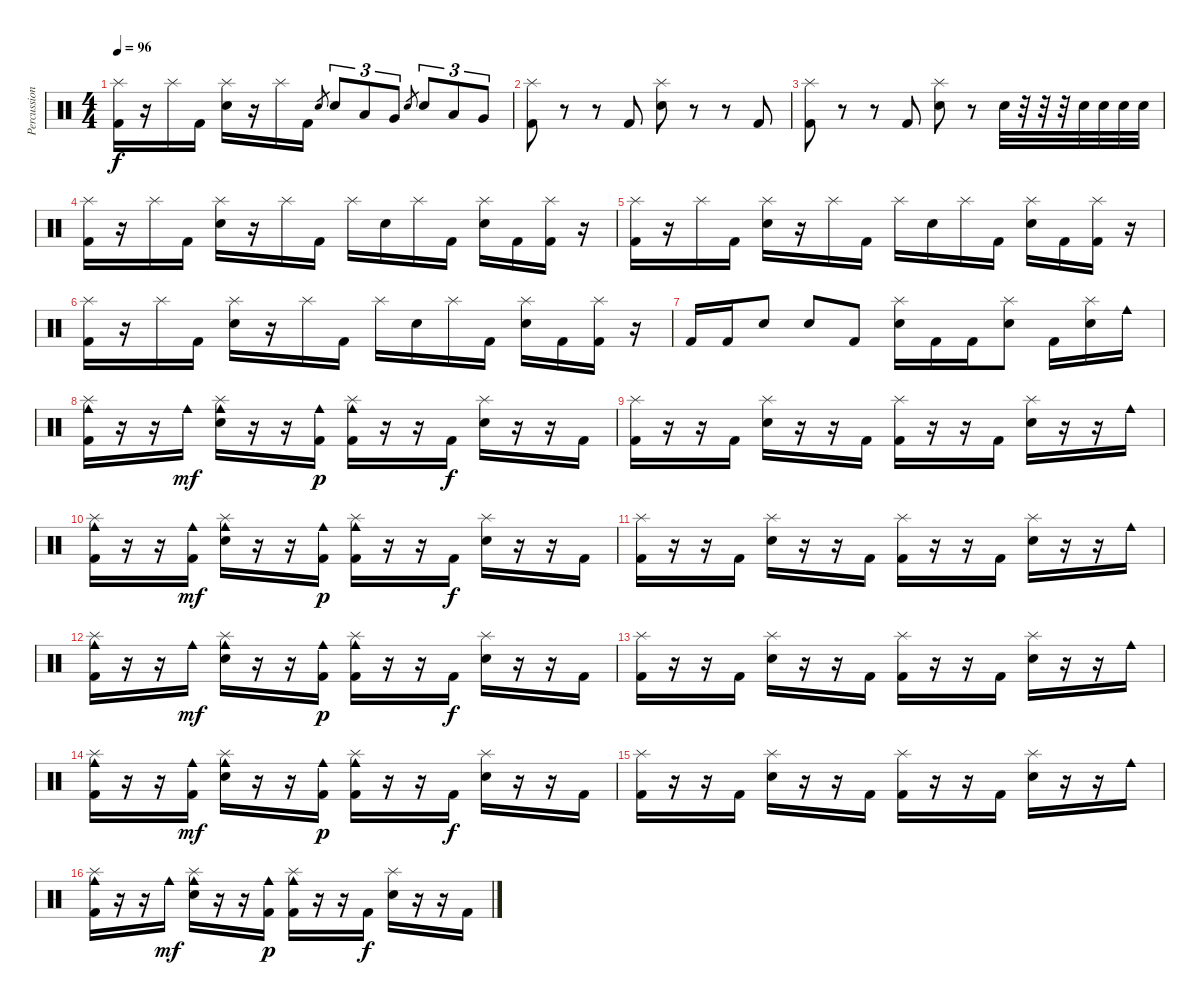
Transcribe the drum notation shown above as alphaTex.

\track ("Percussion" "Percussion") {instrument percussion}
\staff {score}
\articulation defaults
\ts (4 4)
\tempo 96
\clef neutral
\ks c
("Splash (hit)" "Kick (hit) 2").16{dy f} r.16 "Splash (hit)".16 "Kick (hit) 2".16 ("Splash (hit)" "Snare (hit) 2").16 r.16 "Splash (hit)".16 "Kick (hit) 2".16 "Snare (hit) 2".8{gr} "Snare (hit) 2".8{tu (3 2)} "Low Tom (hit)".8{tu (3 2)} "Very Low Tom (hit)".8{tu (3 2)} "Snare (hit) 2".8{gr} "Snare (hit) 2".8{tu (3 2)} "Low Tom (hit)".8{tu (3 2)} "Very Low Tom (hit)".8{tu (3 2)} |
("Splash (hit)" "Kick (hit) 2").8 r.8 r.8 "Kick (hit) 2".8 ("Splash (hit)" "Snare (hit) 2").8 r.8 r.8 "Kick (hit) 2".8 |
("Splash (hit)" "Kick (hit) 2").8 r.8 r.8 "Kick (hit) 2".8 ("Splash (hit)" "Snare (hit) 2").8 r.8 "Snare (hit) 2".32 r.32 r.32 r.32 "Snare (hit) 2".32 "Snare (hit) 2".32 "Snare (hit) 2".32 "Snare (hit) 2".32 |
("Splash (hit)" "Kick (hit) 2").16 r.16 "Splash (hit)".16 "Kick (hit) 2".16 ("Splash (hit)" "Snare (hit) 2").16 r.16 "Splash (hit)".16 "Kick (hit) 2".16 "Splash (hit)".16 "Snare (hit) 2".16 "Splash (hit)".16 "Kick (hit) 2".16 ("Splash (hit)" "Snare (hit) 2").16 "Kick (hit) 2".16 ("Splash (hit)" "Kick (hit) 2").16 r.16 |
("Splash (hit)" "Kick (hit) 2").16 r.16 "Splash (hit)".16 "Kick (hit) 2".16 ("Splash (hit)" "Snare (hit) 2").16 r.16 "Splash (hit)".16 "Kick (hit) 2".16 "Splash (hit)".16 "Snare (hit) 2".16 "Splash (hit)".16 "Kick (hit) 2".16 ("Splash (hit)" "Snare (hit) 2").16 "Kick (hit) 2".16 ("Splash (hit)" "Kick (hit) 2").16 r.16 |
("Splash (hit)" "Kick (hit) 2").16 r.16 "Splash (hit)".16 "Kick (hit) 2".16 ("Splash (hit)" "Snare (hit) 2").16 r.16 "Splash (hit)".16 "Kick (hit) 2".16 "Splash (hit)".16 "Snare (hit) 2".16 "Splash (hit)".16 "Kick (hit) 2".16 ("Splash (hit)" "Snare (hit) 2").16 "Kick (hit) 2".16 ("Splash (hit)" "Kick (hit) 2").16 r.16 |
"Kick (hit) 2".16 "Kick (hit) 2".16 "Snare (hit) 2".8 "Snare (hit) 2".8 "Kick (hit) 2".8 ("Splash (hit)" "Snare (hit) 2").16 "Kick (hit) 2".16 "Kick (hit) 2".16 ("Splash (hit)" "Snare (hit) 2").8 "Kick (hit) 2".16 ("Splash (hit)" "Snare (hit) 2").16 "Cowbell medium (hit)".16 |
("Splash (hit)" "Cowbell medium (hit)" "Kick (hit) 2").16 r.16 r.16 "Cowbell medium (hit)".16{dy mf} ("Splash (hit)" "Cowbell medium (hit)" "Snare (hit) 2").16 r.16 r.16 ("Cowbell medium (hit)" "Kick (hit) 2").16{dy p} ("Splash (hit)" "Cowbell medium (hit)" "Kick (hit) 2").16 r.16 r.16 "Kick (hit) 2".16{dy f} ("Splash (hit)" "Snare (hit) 2").16 r.16 r.16 "Kick (hit) 2".16 |
("Splash (hit)" "Kick (hit) 2").16 r.16 r.16 "Kick (hit) 2".16 ("Splash (hit)" "Snare (hit) 2").16 r.16 r.16 "Kick (hit) 2".16 ("Splash (hit)" "Kick (hit) 2").16 r.16 r.16 "Kick (hit) 2".16 ("Splash (hit)" "Snare (hit) 2").16 r.16 r.16 "Cowbell medium (hit)".16 |
("Splash (hit)" "Cowbell medium (hit)" "Kick (hit) 2").16 r.16 r.16 ("Cowbell medium (hit)" "Kick (hit) 2").16{dy mf} ("Splash (hit)" "Cowbell medium (hit)" "Snare (hit) 2").16 r.16 r.16 ("Cowbell medium (hit)" "Kick (hit) 2").16{dy p} ("Splash (hit)" "Cowbell medium (hit)" "Kick (hit) 2").16 r.16 r.16 "Kick (hit) 2".16{dy f} ("Splash (hit)" "Snare (hit) 2").16 r.16 r.16 "Kick (hit) 2".16 |
("Splash (hit)" "Kick (hit) 2").16 r.16 r.16 "Kick (hit) 2".16 ("Splash (hit)" "Snare (hit) 2").16 r.16 r.16 "Kick (hit) 2".16 ("Splash (hit)" "Kick (hit) 2").16 r.16 r.16 "Kick (hit) 2".16 ("Splash (hit)" "Snare (hit) 2").16 r.16 r.16 "Cowbell medium (hit)".16 |
("Splash (hit)" "Cowbell medium (hit)" "Kick (hit) 2").16 r.16 r.16 "Cowbell medium (hit)".16{dy mf} ("Splash (hit)" "Cowbell medium (hit)" "Snare (hit) 2").16 r.16 r.16 ("Cowbell medium (hit)" "Kick (hit) 2").16{dy p} ("Splash (hit)" "Cowbell medium (hit)" "Kick (hit) 2").16 r.16 r.16 "Kick (hit) 2".16{dy f} ("Splash (hit)" "Snare (hit) 2").16 r.16 r.16 "Kick (hit) 2".16 |
("Splash (hit)" "Kick (hit) 2").16 r.16 r.16 "Kick (hit) 2".16 ("Splash (hit)" "Snare (hit) 2").16 r.16 r.16 "Kick (hit) 2".16 ("Splash (hit)" "Kick (hit) 2").16 r.16 r.16 "Kick (hit) 2".16 ("Splash (hit)" "Snare (hit) 2").16 r.16 r.16 "Cowbell medium (hit)".16 |
("Splash (hit)" "Cowbell medium (hit)" "Kick (hit) 2").16 r.16 r.16 ("Cowbell medium (hit)" "Kick (hit) 2").16{dy mf} ("Splash (hit)" "Cowbell medium (hit)" "Snare (hit) 2").16 r.16 r.16 ("Cowbell medium (hit)" "Kick (hit) 2").16{dy p} ("Splash (hit)" "Cowbell medium (hit)" "Kick (hit) 2").16 r.16 r.16 "Kick (hit) 2".16{dy f} ("Splash (hit)" "Snare (hit) 2").16 r.16 r.16 "Kick (hit) 2".16 |
("Splash (hit)" "Kick (hit) 2").16 r.16 r.16 "Kick (hit) 2".16 ("Splash (hit)" "Snare (hit) 2").16 r.16 r.16 "Kick (hit) 2".16 ("Splash (hit)" "Kick (hit) 2").16 r.16 r.16 "Kick (hit) 2".16 ("Splash (hit)" "Snare (hit) 2").16 r.16 r.16 "Cowbell medium (hit)".16 |
("Splash (hit)" "Cowbell medium (hit)" "Kick (hit) 2").16 r.16 r.16 "Cowbell medium (hit)".16{dy mf} ("Splash (hit)" "Cowbell medium (hit)" "Snare (hit) 2").16 r.16 r.16 ("Cowbell medium (hit)" "Kick (hit) 2").16{dy p} ("Splash (hit)" "Cowbell medium (hit)" "Kick (hit) 2").16 r.16 r.16 "Kick (hit) 2".16{dy f} ("Splash (hit)" "Snare (hit) 2").16 r.16 r.16 "Kick (hit) 2".16
